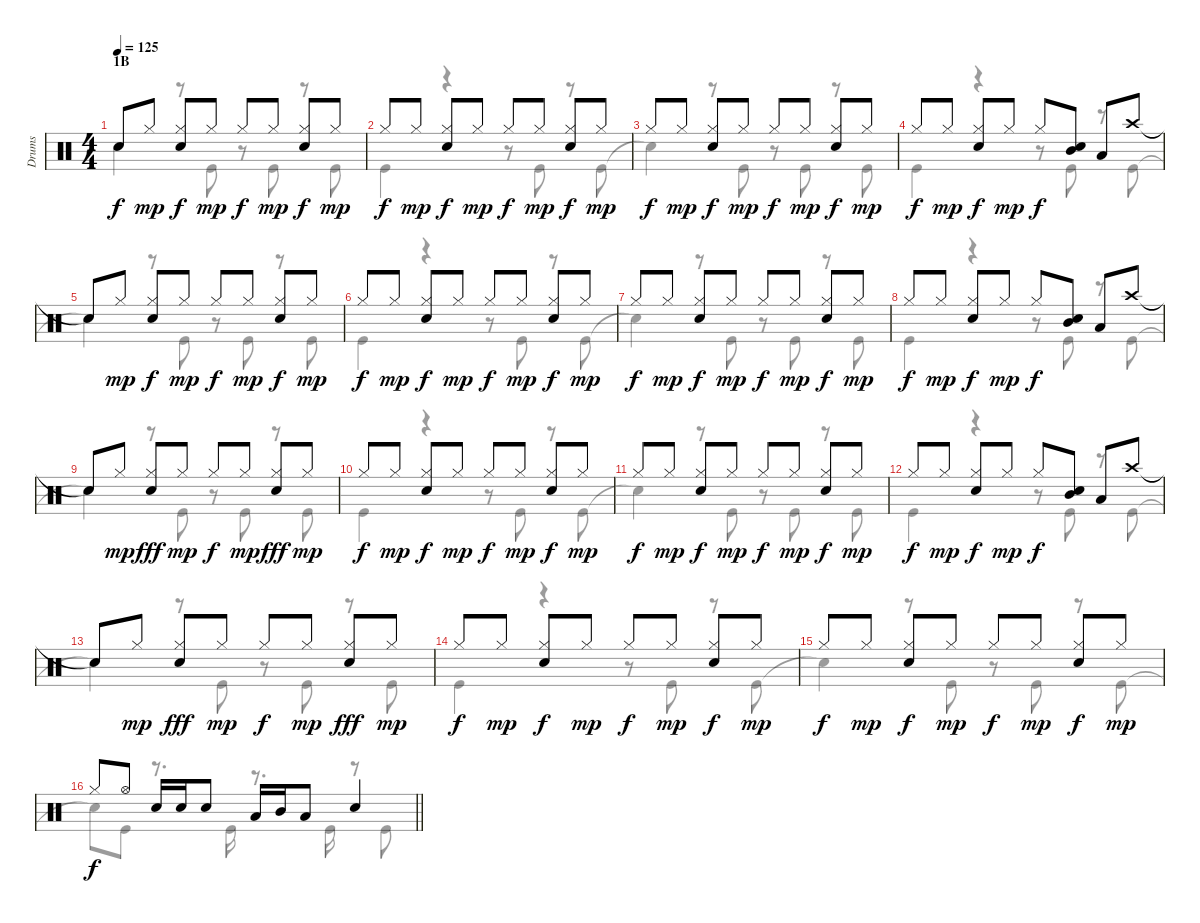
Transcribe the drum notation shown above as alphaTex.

\track ("Drums" "Drums") {instrument percussion}
\staff {score}
\articulation defaults
\voice
\ts (4 4)
\section ("" "1B")
\tempo 125
\clef neutral
\ks c "Snare (hit)"{t}.8{dy f} "Hi-Hat (closed)".8{dy mp}
("Hi-Hat (closed)" "Snare (hit) 2").8{dy f} "Hi-Hat (closed)".8{dy mp} "Hi-Hat (closed)".8{dy f} "Hi-Hat (closed)".8{dy mp} ("Hi-Hat (closed)" "Snare (hit) 2").8{dy f} "Hi-Hat (closed)".8{dy mp} |
"Hi-Hat (closed)".8{dy f} "Hi-Hat (closed)".8{dy mp} ("Hi-Hat (closed)" "Snare (hit) 2").8{dy f} "Hi-Hat (closed)".8{dy mp} "Hi-Hat (closed)".8{dy f} "Hi-Hat (closed)".8{dy mp} ("Hi-Hat (closed)" "Snare (hit) 2").8{dy f} "Hi-Hat (closed)".8{dy mp} |
"Hi-Hat (closed)".8{dy f} "Hi-Hat (closed)".8{dy mp} ("Hi-Hat (closed)" "Snare (hit) 2").8{dy f} "Hi-Hat (closed)".8{dy mp} "Hi-Hat (closed)".8{dy f} "Hi-Hat (closed)".8{dy mp} ("Hi-Hat (closed)" "Snare (hit) 2").8{dy f} "Hi-Hat (closed)".8{dy mp} |
"Hi-Hat (closed)".8{dy f} "Hi-Hat (closed)".8{dy mp} ("Hi-Hat (closed)" "Snare (hit) 2").8{dy f} "Hi-Hat (closed)".8{dy mp} "Hi-Hat (closed)".8{dy f} ("Snare (hit) 2" "Mid Tom (hit)").8 "Low Tom (hit)".8 "Crash high (hit)".8 |
"Snare (hit)"{t}.8 "Hi-Hat (closed)".8{dy mp} ("Hi-Hat (closed)" "Snare (hit) 2").8{dy f} "Hi-Hat (closed)".8{dy mp} "Hi-Hat (closed)".8{dy f} "Hi-Hat (closed)".8{dy mp} ("Hi-Hat (closed)" "Snare (hit) 2").8{dy f} "Hi-Hat (closed)".8{dy mp} |
"Hi-Hat (closed)".8{dy f} "Hi-Hat (closed)".8{dy mp} ("Hi-Hat (closed)" "Snare (hit) 2").8{dy f} "Hi-Hat (closed)".8{dy mp} "Hi-Hat (closed)".8{dy f} "Hi-Hat (closed)".8{dy mp} ("Hi-Hat (closed)" "Snare (hit) 2").8{dy f} "Hi-Hat (closed)".8{dy mp} |
"Hi-Hat (closed)".8{dy f} "Hi-Hat (closed)".8{dy mp} ("Hi-Hat (closed)" "Snare (hit) 2").8{dy f} "Hi-Hat (closed)".8{dy mp} "Hi-Hat (closed)".8{dy f} "Hi-Hat (closed)".8{dy mp} ("Hi-Hat (closed)" "Snare (hit) 2").8{dy f} "Hi-Hat (closed)".8{dy mp} |
"Hi-Hat (closed)".8{dy f} "Hi-Hat (closed)".8{dy mp} ("Hi-Hat (closed)" "Snare (hit) 2").8{dy f} "Hi-Hat (closed)".8{dy mp} "Hi-Hat (closed)".8{dy f} ("Snare (hit) 2" "Mid Tom (hit)").8 "Low Tom (hit)".8 "Crash high (hit)".8 |
"Snare (hit)"{t}.8 "Hi-Hat (closed)".8{dy mp} ("Hi-Hat (closed)" "Snare (hit) 2").8{dy fff} "Hi-Hat (closed)".8{dy mp} "Hi-Hat (closed)".8{dy f} "Hi-Hat (closed)".8{dy mp} ("Hi-Hat (closed)" "Snare (hit) 2").8{dy fff} "Hi-Hat (closed)".8{dy mp} |
"Hi-Hat (closed)".8{dy f} "Hi-Hat (closed)".8{dy mp} ("Hi-Hat (closed)" "Snare (hit) 2").8{dy f} "Hi-Hat (closed)".8{dy mp} "Hi-Hat (closed)".8{dy f} "Hi-Hat (closed)".8{dy mp} ("Hi-Hat (closed)" "Snare (hit) 2").8{dy f} "Hi-Hat (closed)".8{dy mp} |
"Hi-Hat (closed)".8{dy f} "Hi-Hat (closed)".8{dy mp} ("Hi-Hat (closed)" "Snare (hit) 2").8{dy f} "Hi-Hat (closed)".8{dy mp} "Hi-Hat (closed)".8{dy f} "Hi-Hat (closed)".8{dy mp} ("Hi-Hat (closed)" "Snare (hit) 2").8{dy f} "Hi-Hat (closed)".8{dy mp} |
"Hi-Hat (closed)".8{dy f} "Hi-Hat (closed)".8{dy mp} ("Hi-Hat (closed)" "Snare (hit) 2").8{dy f} "Hi-Hat (closed)".8{dy mp} "Hi-Hat (closed)".8{dy f} ("Snare (hit) 2" "Mid Tom (hit)").8 "Low Tom (hit)".8 "Crash high (hit)".8 |
"Snare (hit)"{t}.8 "Hi-Hat (closed)".8{dy mp} ("Hi-Hat (closed)" "Snare (hit) 2").8{dy fff} "Hi-Hat (closed)".8{dy mp} "Hi-Hat (closed)".8{dy f} "Hi-Hat (closed)".8{dy mp} ("Hi-Hat (closed)" "Snare (hit) 2").8{dy fff} "Hi-Hat (closed)".8{dy mp} |
"Hi-Hat (closed)".8{dy f} "Hi-Hat (closed)".8{dy mp} ("Hi-Hat (closed)" "Snare (hit) 2").8{dy f} "Hi-Hat (closed)".8{dy mp} "Hi-Hat (closed)".8{dy f} "Hi-Hat (closed)".8{dy mp} ("Hi-Hat (closed)" "Snare (hit) 2").8{dy f} "Hi-Hat (closed)".8{dy mp} |
"Hi-Hat (closed)".8{dy f} "Hi-Hat (closed)".8{dy mp} ("Hi-Hat (closed)" "Snare (hit) 2").8{dy f} "Hi-Hat (closed)".8{dy mp} "Hi-Hat (closed)".8{dy f} "Hi-Hat (closed)".8{dy mp} ("Hi-Hat (closed)" "Snare (hit) 2").8{dy f} "Hi-Hat (closed)".8{dy mp} |
\barLineRight lightlight "Hi-Hat (closed)".8{dy f} "Hi-Hat (open)".8 "Snare (hit) 2".16 "Snare (hit) 2".16 "Snare (hit) 2".8 "Low Tom (hit)".16 "Mid Tom (hit)".16 "Low Tom (hit)".8 "Snare (hit) 2".4
\voice
\clef neutral
\ottava regular
\simile none
\ks c "Snare (hit)"{t}.4{dy f}
r.8 "Kick (hit)".8 r.8 "Kick (hit)".8 r.8 "Kick (hit)".8 |
"Kick (hit)".4 r.4 r.8 "Kick (hit)".8 r.8 "Kick (hit)".8 |
"Snare (hit)"{t}.4 r.8 "Kick (hit)".8 r.8 "Kick (hit)".8 r.8 "Kick (hit)".8 |
"Kick (hit)".4 r.4 r.8 "Kick (hit)".8 r.8 "Kick (hit)".8 |
"Snare (hit)"{t}.4 r.8 "Kick (hit)".8 r.8 "Kick (hit)".8 r.8 "Kick (hit)".8 |
"Kick (hit)".4 r.4 r.8 "Kick (hit)".8 r.8 "Kick (hit)".8 |
"Snare (hit)"{t}.4 r.8 "Kick (hit)".8 r.8 "Kick (hit)".8 r.8 "Kick (hit)".8 |
"Kick (hit)".4 r.4 r.8 "Kick (hit)".8 r.8 "Kick (hit)".8 |
"Snare (hit)"{t}.4 r.8 "Kick (hit)".8 r.8 "Kick (hit)".8 r.8 "Kick (hit)".8 |
"Kick (hit)".4 r.4 r.8 "Kick (hit)".8 r.8 "Kick (hit)".8 |
"Snare (hit)"{t}.4 r.8 "Kick (hit)".8 r.8 "Kick (hit)".8 r.8 "Kick (hit)".8 |
"Kick (hit)".4 r.4 r.8 "Kick (hit)".8 r.8 "Kick (hit)".8 |
"Snare (hit)"{t}.4 r.8 "Kick (hit)".8 r.8 "Kick (hit)".8 r.8 "Kick (hit)".8 |
"Kick (hit)".4 r.4 r.8 "Kick (hit)".8 r.8 "Kick (hit)".8 |
"Snare (hit)"{t}.4 r.8 "Kick (hit)".8 r.8 "Kick (hit)".8 r.8 "Kick (hit)".8 |
\barLineRight lightlight "Snare (hit)"{t}.8 "Kick (hit)".8
r.8{d} "Kick (hit)".16 r.8{d} "Kick (hit)".16 r.8 "Kick (hit)".8
